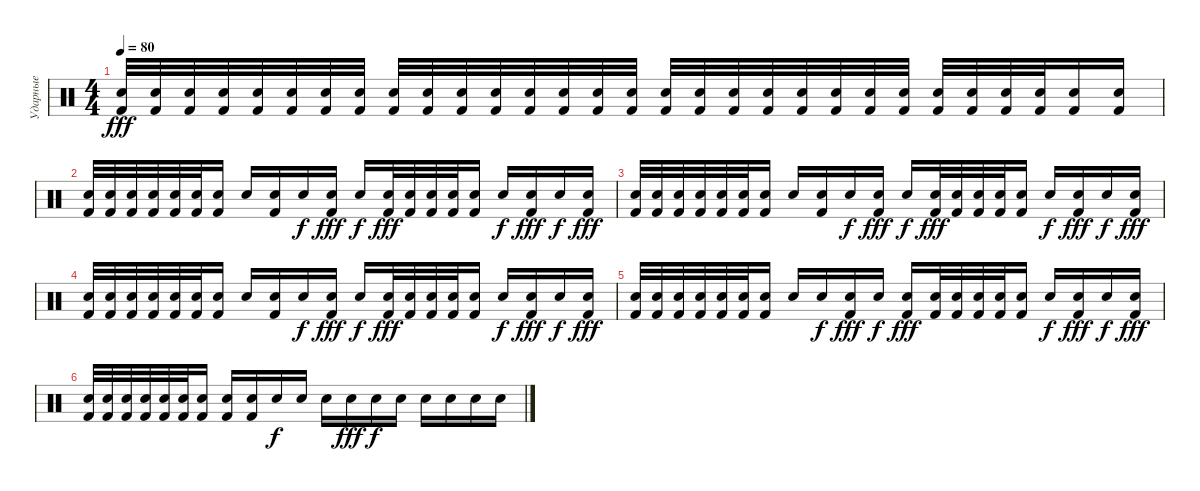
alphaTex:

\track ("Ударные" "Ударные") {instrument percussion}
\staff
\articulation defaults
\ts (4 4)
\tempo 80
\clef neutral
\ks c
("Kick (hit) 2" "Snare (hit)").32{dy fff} ("Kick (hit) 2" "Snare (hit)").32 ("Kick (hit) 2" "Snare (hit)").32 ("Kick (hit) 2" "Snare (hit)").32 ("Kick (hit) 2" "Snare (hit)").32 ("Kick (hit) 2" "Snare (hit)").32 ("Kick (hit) 2" "Snare (hit)").32 ("Kick (hit) 2" "Snare (hit)").32 ("Kick (hit) 2" "Snare (hit)").32 ("Kick (hit) 2" "Snare (hit)").32 ("Kick (hit) 2" "Snare (hit)").32 ("Kick (hit) 2" "Snare (hit)").32 ("Kick (hit) 2" "Snare (hit)").32 ("Kick (hit) 2" "Snare (hit)").32 ("Kick (hit) 2" "Snare (hit)").32 ("Kick (hit) 2" "Snare (hit)").32 ("Kick (hit) 2" "Snare (hit)").32 ("Kick (hit) 2" "Snare (hit)").32 ("Kick (hit) 2" "Snare (hit)").32 ("Kick (hit) 2" "Snare (hit)").32 ("Kick (hit) 2" "Snare (hit)").32 ("Kick (hit) 2" "Snare (hit)").32 ("Kick (hit) 2" "Snare (hit)").32 ("Kick (hit) 2" "Snare (hit)").32 ("Kick (hit) 2" "Snare (hit)").32 ("Kick (hit) 2" "Snare (hit)").32 ("Kick (hit) 2" "Snare (hit)").32 ("Kick (hit) 2" "Snare (hit)").32 ("Kick (hit) 2" "Snare (hit)").16 ("Kick (hit) 2" "Snare (hit)").16 |
("Kick (hit) 2" "Snare (hit)").32 ("Kick (hit) 2" "Snare (hit)").32 ("Kick (hit) 2" "Snare (hit)").32 ("Kick (hit) 2" "Snare (hit)").32 ("Kick (hit) 2" "Snare (hit)").32 ("Kick (hit) 2" "Snare (hit)").32 ("Kick (hit) 2" "Snare (hit)").16 "Snare (hit)".16 ("Kick (hit) 2" "Snare (hit)").16 "Snare (hit)".16{dy f} ("Kick (hit) 2" "Snare (hit)").16{dy fff} "Snare (hit)".16{dy f} ("Kick (hit) 2" "Snare (hit)").32{dy fff} ("Kick (hit) 2" "Snare (hit)").32 ("Kick (hit) 2" "Snare (hit)").32 ("Kick (hit) 2" "Snare (hit)").32 ("Kick (hit) 2" "Snare (hit)").16 "Snare (hit)".16{dy f} ("Kick (hit) 2" "Snare (hit)").16{dy fff} "Snare (hit)".16{dy f} ("Kick (hit) 2" "Snare (hit)").16{dy fff} |
("Kick (hit) 2" "Snare (hit)").32 ("Kick (hit) 2" "Snare (hit)").32 ("Kick (hit) 2" "Snare (hit)").32 ("Kick (hit) 2" "Snare (hit)").32 ("Kick (hit) 2" "Snare (hit)").32 ("Kick (hit) 2" "Snare (hit)").32 ("Kick (hit) 2" "Snare (hit)").16 "Snare (hit)".16 ("Kick (hit) 2" "Snare (hit)").16 "Snare (hit)".16{dy f} ("Kick (hit) 2" "Snare (hit)").16{dy fff} "Snare (hit)".16{dy f} ("Kick (hit) 2" "Snare (hit)").32{dy fff} ("Kick (hit) 2" "Snare (hit)").32 ("Kick (hit) 2" "Snare (hit)").32 ("Kick (hit) 2" "Snare (hit)").32 ("Kick (hit) 2" "Snare (hit)").16 "Snare (hit)".16{dy f} ("Kick (hit) 2" "Snare (hit)").16{dy fff} "Snare (hit)".16{dy f} ("Kick (hit) 2" "Snare (hit)").16{dy fff} |
("Kick (hit) 2" "Snare (hit)").32 ("Kick (hit) 2" "Snare (hit)").32 ("Kick (hit) 2" "Snare (hit)").32 ("Kick (hit) 2" "Snare (hit)").32 ("Kick (hit) 2" "Snare (hit)").32 ("Kick (hit) 2" "Snare (hit)").32 ("Kick (hit) 2" "Snare (hit)").16 "Snare (hit)".16 ("Kick (hit) 2" "Snare (hit)").16 "Snare (hit)".16{dy f} ("Kick (hit) 2" "Snare (hit)").16{dy fff} "Snare (hit)".16{dy f} ("Kick (hit) 2" "Snare (hit)").32{dy fff} ("Kick (hit) 2" "Snare (hit)").32 ("Kick (hit) 2" "Snare (hit)").32 ("Kick (hit) 2" "Snare (hit)").32 ("Kick (hit) 2" "Snare (hit)").16 "Snare (hit)".16{dy f} ("Kick (hit) 2" "Snare (hit)").16{dy fff} "Snare (hit)".16{dy f} ("Kick (hit) 2" "Snare (hit)").16{dy fff} |
("Kick (hit) 2" "Snare (hit)").32 ("Kick (hit) 2" "Snare (hit)").32 ("Kick (hit) 2" "Snare (hit)").32 ("Kick (hit) 2" "Snare (hit)").32 ("Kick (hit) 2" "Snare (hit)").32 ("Kick (hit) 2" "Snare (hit)").32 ("Kick (hit) 2" "Snare (hit)").16 "Snare (hit)".16 "Snare (hit)".16{dy f} ("Kick (hit) 2" "Snare (hit)").16{dy fff} "Snare (hit)".16{dy f} ("Kick (hit) 2" "Snare (hit)").16{dy fff} ("Kick (hit) 2" "Snare (hit)").32 ("Kick (hit) 2" "Snare (hit)").32 ("Kick (hit) 2" "Snare (hit)").32 ("Kick (hit) 2" "Snare (hit)").32 ("Kick (hit) 2" "Snare (hit)").16 "Snare (hit)".16{dy f} ("Kick (hit) 2" "Snare (hit)").16{dy fff} "Snare (hit)".16{dy f} ("Kick (hit) 2" "Snare (hit)").16{dy fff} |
("Kick (hit) 2" "Snare (hit)").32 ("Kick (hit) 2" "Snare (hit)").32 ("Kick (hit) 2" "Snare (hit)").32 ("Kick (hit) 2" "Snare (hit)").32 ("Kick (hit) 2" "Snare (hit)").32 ("Kick (hit) 2" "Snare (hit)").32 ("Kick (hit) 2" "Snare (hit)").16 ("Kick (hit) 2" "Snare (hit)").16 ("Kick (hit) 2" "Snare (hit)").16 "Snare (hit)".16{dy f} "Snare (hit)".16 "Snare (hit)".16 "Snare (hit)".16{dy fff} "Snare (hit)".16{dy f} "Snare (hit)".16 "Snare (hit)".16 "Snare (hit)".16 "Snare (hit)".16 "Snare (hit)".16
